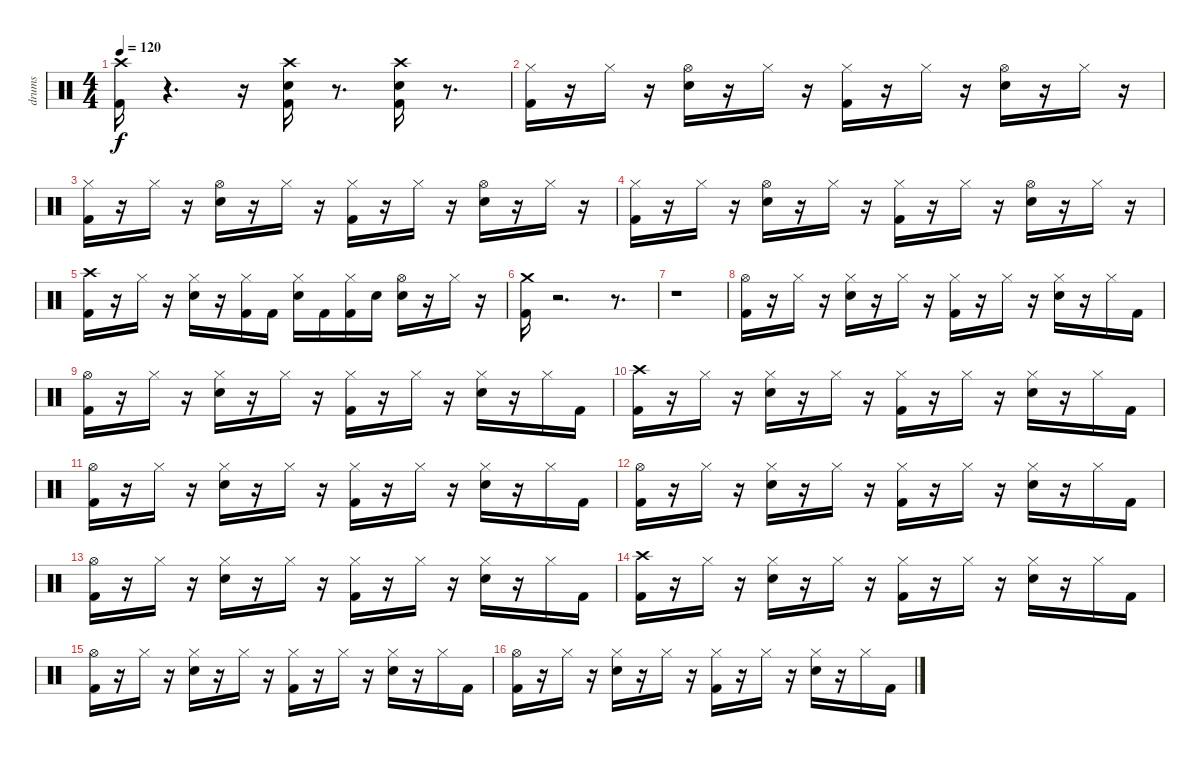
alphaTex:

\track ("drums" "drums") {instrument percussion}
\staff {score}
\articulation defaults
\ts (4 4)
\tempo 120
\clef neutral
\ks c
("Crash high (hit)" "Kick (hit) 2").16{dy f} r.4{d} r.16 ("Crash high (hit)" "Kick (hit) 2" "Snare (hit) 2").16 r.8{d} ("Kick (hit) 2" "Snare (hit) 2" "Crash high (hit)").16 r.8{d} |
("Hi-Hat (closed)" "Kick (hit) 2").16 r.16 "Hi-Hat (closed)".16 r.16 ("Hi-Hat (open)" "Snare (hit) 2").16 r.16 "Hi-Hat (closed)".16 r.16 ("Hi-Hat (closed)" "Kick (hit) 2").16 r.16 "Hi-Hat (closed)".16 r.16 ("Hi-Hat (open)" "Electric Snare (hit)").16 r.16 "Hi-Hat (closed)".16 r.16 |
("Hi-Hat (closed)" "Kick (hit) 2").16 r.16 "Hi-Hat (closed)".16 r.16 ("Hi-Hat (open)" "Electric Snare (hit)").16 r.16 "Hi-Hat (closed)".16 r.16 ("Hi-Hat (closed)" "Kick (hit) 2").16 r.16 "Hi-Hat (closed)".16 r.16 ("Hi-Hat (open)" "Snare (hit) 2").16 r.16 "Hi-Hat (closed)".16 r.16 |
("Hi-Hat (closed)" "Kick (hit) 2").16 r.16 "Hi-Hat (closed)".16 r.16 ("Hi-Hat (open)" "Snare (hit) 2").16 r.16 "Hi-Hat (closed)".16 r.16 ("Hi-Hat (closed)" "Kick (hit) 2").16 r.16 "Hi-Hat (closed)".16 r.16 ("Hi-Hat (open)" "Electric Snare (hit)").16 r.16 "Hi-Hat (closed)".16 r.16 |
("Crash high (hit)" "Kick (hit) 2").16 r.16 "Hi-Hat (closed)".16 r.16 ("Hi-Hat (closed)" "Snare (hit) 2").16 r.16 ("Hi-Hat (closed)" "Kick (hit) 2").16 "Kick (hit) 2".16 ("Hi-Hat (closed)" "Electric Snare (hit)").16 "Kick (hit) 2".16 ("Hi-Hat (closed)" "Kick (hit) 2").16 "Electric Snare (hit)".16 ("Hi-Hat (open)" "Electric Snare (hit)").16 r.16 "Hi-Hat (closed)".16 r.16 |
("Crash medium (hit)" "Kick (hit) 2").16 r.2{d} r.8{d} |
r.1 |
("Hi-Hat (open)" "Kick (hit) 2").16 r.16 "Hi-Hat (closed)".16 r.16 ("Snare (hit) 2" "Hi-Hat (closed)").16 r.16 "Hi-Hat (closed)".16 r.16 ("Hi-Hat (closed)" "Kick (hit) 2").16 r.16 "Hi-Hat (closed)".16 r.16 ("Electric Snare (hit)" "Hi-Hat (closed)").16 r.16 "Hi-Hat (closed)".16 "Kick (hit) 2".16 |
("Kick (hit) 2" "Hi-Hat (open)").16 r.16 "Hi-Hat (closed)".16 r.16 ("Snare (hit) 2" "Hi-Hat (closed)").16 r.16 "Hi-Hat (closed)".16 r.16 ("Hi-Hat (closed)" "Kick (hit) 2").16 r.16 "Hi-Hat (closed)".16 r.16 ("Hi-Hat (closed)" "Electric Snare (hit)").16 r.16 "Hi-Hat (closed)".16 "Kick (hit) 2".16 |
("Crash high (hit)" "Kick (hit) 2").16 r.16 "Hi-Hat (closed)".16 r.16 ("Snare (hit) 2" "Hi-Hat (closed)").16 r.16 "Hi-Hat (closed)".16 r.16 ("Kick (hit) 2" "Hi-Hat (closed)").16 r.16 "Hi-Hat (closed)".16 r.16 ("Electric Snare (hit)" "Hi-Hat (closed)").16 r.16 "Hi-Hat (closed)".16 "Kick (hit) 2".16 |
("Hi-Hat (open)" "Kick (hit) 2").16 r.16 "Hi-Hat (closed)".16 r.16 ("Snare (hit) 2" "Hi-Hat (closed)").16 r.16 "Hi-Hat (closed)".16 r.16 ("Kick (hit) 2" "Hi-Hat (closed)").16 r.16 "Hi-Hat (closed)".16 r.16 ("Snare (hit) 2" "Hi-Hat (closed)").16 r.16 "Hi-Hat (closed)".16 "Kick (hit) 2".16 |
("Hi-Hat (open)" "Kick (hit) 2").16 r.16 "Hi-Hat (closed)".16 r.16 ("Snare (hit) 2" "Hi-Hat (closed)").16 r.16 "Hi-Hat (closed)".16 r.16 ("Hi-Hat (closed)" "Kick (hit) 2").16 r.16 "Hi-Hat (closed)".16 r.16 ("Electric Snare (hit)" "Hi-Hat (closed)").16 r.16 "Hi-Hat (closed)".16 "Kick (hit) 2".16 |
("Kick (hit) 2" "Hi-Hat (open)").16 r.16 "Hi-Hat (closed)".16 r.16 ("Snare (hit) 2" "Hi-Hat (closed)").16 r.16 "Hi-Hat (closed)".16 r.16 ("Hi-Hat (closed)" "Kick (hit) 2").16 r.16 "Hi-Hat (closed)".16 r.16 ("Hi-Hat (closed)" "Electric Snare (hit)").16 r.16 "Hi-Hat (closed)".16 "Kick (hit) 2".16 |
("Crash high (hit)" "Kick (hit) 2").16 r.16 "Hi-Hat (closed)".16 r.16 ("Snare (hit) 2" "Hi-Hat (closed)").16 r.16 "Hi-Hat (closed)".16 r.16 ("Kick (hit) 2" "Hi-Hat (closed)").16 r.16 "Hi-Hat (closed)".16 r.16 ("Electric Snare (hit)" "Hi-Hat (closed)").16 r.16 "Hi-Hat (closed)".16 "Kick (hit) 2".16 |
("Hi-Hat (open)" "Kick (hit) 2").16 r.16 "Hi-Hat (closed)".16 r.16 ("Snare (hit) 2" "Hi-Hat (closed)").16 r.16 "Hi-Hat (closed)".16 r.16 ("Kick (hit) 2" "Hi-Hat (closed)").16 r.16 "Hi-Hat (closed)".16 r.16 ("Snare (hit) 2" "Hi-Hat (closed)").16 r.16 "Hi-Hat (closed)".16 "Kick (hit) 2".16 |
("Hi-Hat (open)" "Kick (hit) 2").16 r.16 "Hi-Hat (closed)".16 r.16 ("Snare (hit) 2" "Hi-Hat (closed)").16 r.16 "Hi-Hat (closed)".16 r.16 ("Hi-Hat (closed)" "Kick (hit) 2").16 r.16 "Hi-Hat (closed)".16 r.16 ("Electric Snare (hit)" "Hi-Hat (closed)").16 r.16 "Hi-Hat (closed)".16 "Kick (hit) 2".16
